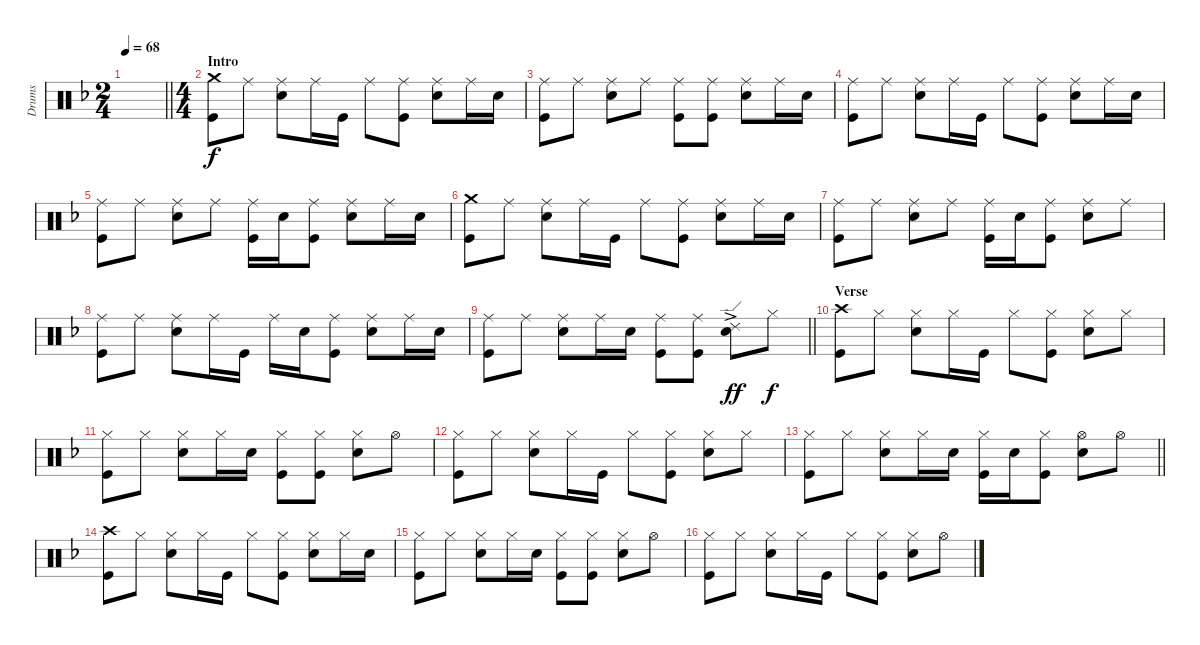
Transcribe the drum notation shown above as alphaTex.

\track ("Drums" "Drums") {instrument percussion}
\staff {score}
\articulation defaults
\ts (2 4)
\tempo 68
\clef neutral
\barLineRight lightlight
\ks f
|
\ts (4 4)
\section ("" "Intro")
("Crash medium (hit)" "Kick (hit)").8 "Ride (middle)".8 ("Ride (middle)" "Snare (hit) 2").8 "Ride (middle)".16 "Kick (hit)".16 "Ride (middle)".8 ("Ride (middle)" "Kick (hit)").8 ("Ride (middle)" "Snare (hit) 2").8 "Ride (middle)".16 "Snare (hit) 2".16 |
("Ride (middle)" "Kick (hit)").8 "Ride (middle)".8 ("Ride (middle)" "Snare (hit) 2").8 "Ride (middle)".8 ("Ride (middle)" "Kick (hit)").8 ("Ride (middle)" "Kick (hit)").8 ("Ride (middle)" "Snare (hit) 2").8 "Ride (middle)".16 "Snare (hit) 2".16 |
("Ride (middle)" "Kick (hit)").8 "Ride (middle)".8 ("Ride (middle)" "Snare (hit) 2").8 "Ride (middle)".16 "Kick (hit)".16 "Ride (middle)".8 ("Ride (middle)" "Kick (hit)").8 ("Ride (middle)" "Snare (hit) 2").8 "Ride (middle)".16 "Snare (hit) 2".16 |
("Ride (middle)" "Kick (hit)").8 "Ride (middle)".8 ("Ride (middle)" "Snare (hit) 2").8 "Ride (middle)".8 ("Ride (middle)" "Kick (hit)").16 "Snare (hit) 2".16 ("Ride (middle)" "Kick (hit)").8 ("Ride (middle)" "Snare (hit) 2").8 "Ride (middle)".16 "Snare (hit) 2".16 |
("Crash medium (hit)" "Kick (hit)").8 "Ride (middle)".8 ("Ride (middle)" "Snare (hit) 2").8 "Ride (middle)".16 "Kick (hit)".16 "Ride (middle)".8 ("Ride (middle)" "Kick (hit)").8 ("Ride (middle)" "Snare (hit) 2").8 "Ride (middle)".16 "Snare (hit) 2".16 |
("Ride (middle)" "Kick (hit)").8 "Ride (middle)".8 ("Ride (middle)" "Snare (hit) 2").8 "Ride (middle)".8 ("Ride (middle)" "Kick (hit)").16 "Snare (hit) 2".16 ("Ride (middle)" "Kick (hit)").8 ("Ride (middle)" "Snare (hit) 2").8 "Ride (middle)".8 |
("Ride (middle)" "Kick (hit)").8 "Ride (middle)".8 ("Ride (middle)" "Snare (hit) 2").8 "Ride (middle)".16 "Kick (hit)".16 "Ride (middle)".16 "Snare (hit) 2".16 ("Ride (middle)" "Kick (hit)").8 ("Ride (middle)" "Snare (hit) 2").8 "Ride (middle)".16 "Snare (hit) 2".16 |
\barLineRight lightlight
("Ride (middle)" "Kick (hit)").8 "Ride (middle)".8 ("Ride (middle)" "Snare (hit) 2").8 "Ride (middle)".16 "Snare (hit) 2".16 ("Ride (middle)" "Kick (hit)").8 ("Ride (middle)" "Kick (hit)").8 ("Ride (edge) 2"{ac} "Snare (hit) 2").8{dy ff} "Hi-Hat (closed)".8{dy f} |
\section ("" "Verse")
("Crash high (hit)" "Kick (hit)").8 "Hi-Hat (closed)".8 ("Hi-Hat (closed)" "Snare (hit) 2").8 "Hi-Hat (closed)".16 "Kick (hit)".16 "Hi-Hat (closed)".8 ("Hi-Hat (closed)" "Kick (hit)").8 ("Hi-Hat (closed)" "Snare (hit) 2").8 "Hi-Hat (closed)".8 |
("Hi-Hat (closed)" "Kick (hit)").8 "Hi-Hat (closed)".8 ("Hi-Hat (closed)" "Snare (hit) 2").8 "Hi-Hat (closed)".16 "Snare (hit) 2".16 ("Hi-Hat (closed)" "Kick (hit)").8 ("Hi-Hat (closed)" "Kick (hit)").8 ("Hi-Hat (closed)" "Snare (hit) 2").8 "Hi-Hat (open)".8 |
("Hi-Hat (closed)" "Kick (hit)").8 "Hi-Hat (closed)".8 ("Hi-Hat (closed)" "Snare (hit) 2").8 "Hi-Hat (closed)".16 "Kick (hit)".16 "Hi-Hat (closed)".8 ("Hi-Hat (closed)" "Kick (hit)").8 ("Hi-Hat (closed)" "Snare (hit) 2").8 "Hi-Hat (closed)".8 |
\barLineRight lightlight
("Hi-Hat (closed)" "Kick (hit)").8 "Hi-Hat (closed)".8 ("Hi-Hat (closed)" "Snare (hit) 2").8 "Hi-Hat (closed)".16 "Snare (hit) 2".16 ("Hi-Hat (closed)" "Kick (hit)").16 "Snare (hit) 2".16 ("Hi-Hat (closed)" "Kick (hit)").8 ("Hi-Hat (open)" "Snare (hit) 2").8 "Hi-Hat (open)".8 |
\section ("" "")
("Crash high (hit)" "Kick (hit)").8 "Hi-Hat (closed)".8 ("Hi-Hat (closed)" "Snare (hit) 2").8 "Hi-Hat (closed)".16 "Kick (hit)".16 "Hi-Hat (closed)".8 ("Hi-Hat (closed)" "Kick (hit)").8 ("Hi-Hat (closed)" "Snare (hit) 2").8 "Hi-Hat (closed)".16 "Snare (hit) 2".16 |
("Hi-Hat (closed)" "Kick (hit)").8 "Hi-Hat (closed)".8 ("Hi-Hat (closed)" "Snare (hit) 2").8 "Hi-Hat (closed)".16 "Snare (hit) 2".16 ("Hi-Hat (closed)" "Kick (hit)").8 ("Hi-Hat (closed)" "Kick (hit)").8 ("Hi-Hat (closed)" "Snare (hit) 2").8 "Hi-Hat (open)".8 |
("Hi-Hat (closed)" "Kick (hit)").8 "Hi-Hat (closed)".8 ("Hi-Hat (closed)" "Snare (hit) 2").8 "Hi-Hat (closed)".16 "Kick (hit)".16 "Hi-Hat (closed)".8 ("Hi-Hat (closed)" "Kick (hit)").8 ("Hi-Hat (closed)" "Snare (hit) 2").8 "Hi-Hat (open)".8
